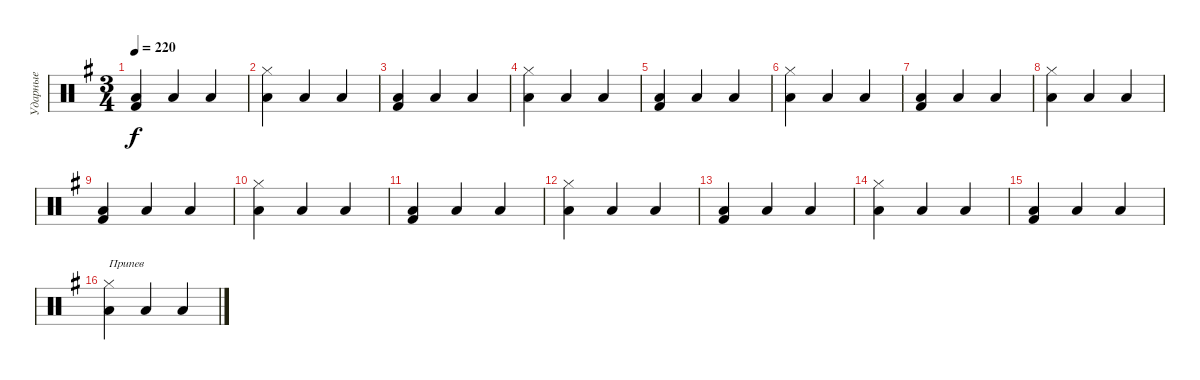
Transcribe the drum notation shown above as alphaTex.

\track ("Ударные" "Ударные") {instrument percussion}
\staff {score}
\articulation defaults
\ts (3 4)
\tempo 220
\clef neutral
\ks eminor
("Kick (hit) 2" "Low Tom (hit)").4{dy f} "Low Tom (hit)".4 "Low Tom (hit)".4 |
("Hi-Hat (closed)" "Low Tom (hit)").4 "Low Tom (hit)".4 "Low Tom (hit)".4 |
("Kick (hit) 2" "Low Tom (hit)").4 "Low Tom (hit)".4 "Low Tom (hit)".4 |
("Hi-Hat (closed)" "Low Tom (hit)").4 "Low Tom (hit)".4 "Low Tom (hit)".4 |
("Kick (hit) 2" "Low Tom (hit)").4 "Low Tom (hit)".4 "Low Tom (hit)".4 |
("Hi-Hat (closed)" "Low Tom (hit)").4 "Low Tom (hit)".4 "Low Tom (hit)".4 |
("Kick (hit) 2" "Low Tom (hit)").4 "Low Tom (hit)".4 "Low Tom (hit)".4 |
("Hi-Hat (closed)" "Low Tom (hit)").4 "Low Tom (hit)".4 "Low Tom (hit)".4 |
("Kick (hit) 2" "Low Tom (hit)").4 "Low Tom (hit)".4 "Low Tom (hit)".4 |
("Hi-Hat (closed)" "Low Tom (hit)").4 "Low Tom (hit)".4 "Low Tom (hit)".4 |
("Kick (hit) 2" "Low Tom (hit)").4 "Low Tom (hit)".4 "Low Tom (hit)".4 |
("Hi-Hat (closed)" "Low Tom (hit)").4 "Low Tom (hit)".4 "Low Tom (hit)".4 |
("Kick (hit) 2" "Low Tom (hit)").4 "Low Tom (hit)".4 "Low Tom (hit)".4 |
("Hi-Hat (closed)" "Low Tom (hit)").4 "Low Tom (hit)".4 "Low Tom (hit)".4 |
("Kick (hit) 2" "Low Tom (hit)").4 "Low Tom (hit)".4 "Low Tom (hit)".4 |
("Hi-Hat (closed)" "Low Tom (hit)").4{txt "Припев"} "Low Tom (hit)".4 "Low Tom (hit)".4
